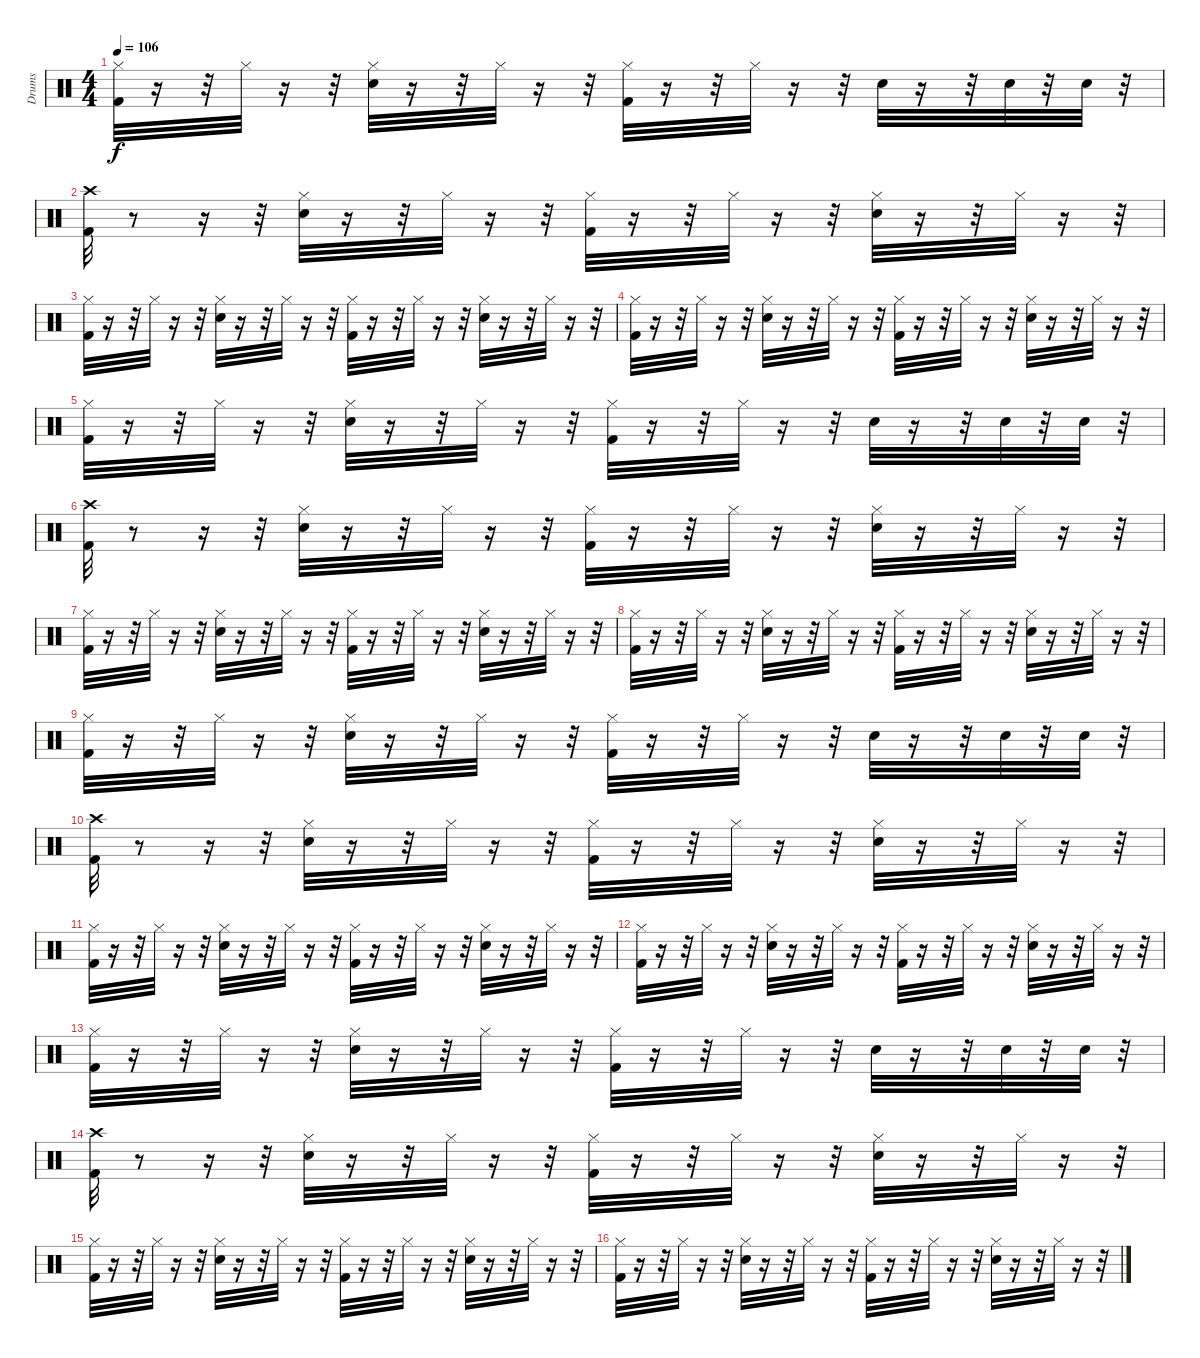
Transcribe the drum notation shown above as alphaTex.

\track ("Drums" "Drums") {instrument percussion}
\staff {score}
\articulation defaults
\ts (4 4)
\tempo 106
\clef neutral
\ks c
("Hi-Hat (closed)" "Kick (hit) 2").32{dy f} r.16 r.32 "Hi-Hat (closed)".32 r.16 r.32 ("Hi-Hat (closed)" "Snare (hit) 2").32 r.16 r.32 "Hi-Hat (closed)".32 r.16 r.32 ("Hi-Hat (closed)" "Kick (hit) 2").32 r.16 r.32 "Hi-Hat (closed)".32 r.16 r.32 "Snare (hit) 2".32 r.16 r.32 "Snare (hit) 2".32 r.32 "Snare (hit) 2".32 r.32 |
("Crash high (hit)" "Kick (hit) 2").32 r.8 r.16 r.32 ("Hi-Hat (closed)" "Snare (hit) 2").32 r.16 r.32 "Hi-Hat (closed)".32 r.16 r.32 ("Hi-Hat (closed)" "Kick (hit) 2").32 r.16 r.32 "Hi-Hat (closed)".32 r.16 r.32 ("Hi-Hat (closed)" "Snare (hit) 2").32 r.16 r.32 "Hi-Hat (closed)".32 r.16 r.32 |
("Hi-Hat (closed)" "Kick (hit) 2").32 r.16 r.32 "Hi-Hat (closed)".32 r.16 r.32 ("Hi-Hat (closed)" "Snare (hit) 2").32 r.16 r.32 "Hi-Hat (closed)".32 r.16 r.32 ("Hi-Hat (closed)" "Kick (hit) 2").32 r.16 r.32 "Hi-Hat (closed)".32 r.16 r.32 ("Hi-Hat (closed)" "Snare (hit) 2").32 r.16 r.32 "Hi-Hat (closed)".32 r.16 r.32 |
("Hi-Hat (closed)" "Kick (hit) 2").32 r.16 r.32 "Hi-Hat (closed)".32 r.16 r.32 ("Hi-Hat (closed)" "Snare (hit) 2").32 r.16 r.32 "Hi-Hat (closed)".32 r.16 r.32 ("Hi-Hat (closed)" "Kick (hit) 2").32 r.16 r.32 "Hi-Hat (closed)".32 r.16 r.32 ("Hi-Hat (closed)" "Snare (hit) 2").32 r.16 r.32 "Hi-Hat (closed)".32 r.16 r.32 |
("Hi-Hat (closed)" "Kick (hit) 2").32 r.16 r.32 "Hi-Hat (closed)".32 r.16 r.32 ("Hi-Hat (closed)" "Snare (hit) 2").32 r.16 r.32 "Hi-Hat (closed)".32 r.16 r.32 ("Hi-Hat (closed)" "Kick (hit) 2").32 r.16 r.32 "Hi-Hat (closed)".32 r.16 r.32 "Snare (hit) 2".32 r.16 r.32 "Snare (hit) 2".32 r.32 "Snare (hit) 2".32 r.32 |
("Crash high (hit)" "Kick (hit) 2").32 r.8 r.16 r.32 ("Hi-Hat (closed)" "Snare (hit) 2").32 r.16 r.32 "Hi-Hat (closed)".32 r.16 r.32 ("Hi-Hat (closed)" "Kick (hit) 2").32 r.16 r.32 "Hi-Hat (closed)".32 r.16 r.32 ("Hi-Hat (closed)" "Snare (hit) 2").32 r.16 r.32 "Hi-Hat (closed)".32 r.16 r.32 |
("Hi-Hat (closed)" "Kick (hit) 2").32 r.16 r.32 "Hi-Hat (closed)".32 r.16 r.32 ("Hi-Hat (closed)" "Snare (hit) 2").32 r.16 r.32 "Hi-Hat (closed)".32 r.16 r.32 ("Hi-Hat (closed)" "Kick (hit) 2").32 r.16 r.32 "Hi-Hat (closed)".32 r.16 r.32 ("Hi-Hat (closed)" "Snare (hit) 2").32 r.16 r.32 "Hi-Hat (closed)".32 r.16 r.32 |
("Hi-Hat (closed)" "Kick (hit) 2").32 r.16 r.32 "Hi-Hat (closed)".32 r.16 r.32 ("Hi-Hat (closed)" "Snare (hit) 2").32 r.16 r.32 "Hi-Hat (closed)".32 r.16 r.32 ("Hi-Hat (closed)" "Kick (hit) 2").32 r.16 r.32 "Hi-Hat (closed)".32 r.16 r.32 ("Hi-Hat (closed)" "Snare (hit) 2").32 r.16 r.32 "Hi-Hat (closed)".32 r.16 r.32 |
("Hi-Hat (closed)" "Kick (hit) 2").32 r.16 r.32 "Hi-Hat (closed)".32 r.16 r.32 ("Hi-Hat (closed)" "Snare (hit) 2").32 r.16 r.32 "Hi-Hat (closed)".32 r.16 r.32 ("Hi-Hat (closed)" "Kick (hit) 2").32 r.16 r.32 "Hi-Hat (closed)".32 r.16 r.32 "Snare (hit) 2".32 r.16 r.32 "Snare (hit) 2".32 r.32 "Snare (hit) 2".32 r.32 |
("Crash high (hit)" "Kick (hit) 2").32 r.8 r.16 r.32 ("Hi-Hat (closed)" "Snare (hit) 2").32 r.16 r.32 "Hi-Hat (closed)".32 r.16 r.32 ("Hi-Hat (closed)" "Kick (hit) 2").32 r.16 r.32 "Hi-Hat (closed)".32 r.16 r.32 ("Hi-Hat (closed)" "Snare (hit) 2").32 r.16 r.32 "Hi-Hat (closed)".32 r.16 r.32 |
("Hi-Hat (closed)" "Kick (hit) 2").32 r.16 r.32 "Hi-Hat (closed)".32 r.16 r.32 ("Hi-Hat (closed)" "Snare (hit) 2").32 r.16 r.32 "Hi-Hat (closed)".32 r.16 r.32 ("Hi-Hat (closed)" "Kick (hit) 2").32 r.16 r.32 "Hi-Hat (closed)".32 r.16 r.32 ("Hi-Hat (closed)" "Snare (hit) 2").32 r.16 r.32 "Hi-Hat (closed)".32 r.16 r.32 |
("Hi-Hat (closed)" "Kick (hit) 2").32 r.16 r.32 "Hi-Hat (closed)".32 r.16 r.32 ("Hi-Hat (closed)" "Snare (hit) 2").32 r.16 r.32 "Hi-Hat (closed)".32 r.16 r.32 ("Hi-Hat (closed)" "Kick (hit) 2").32 r.16 r.32 "Hi-Hat (closed)".32 r.16 r.32 ("Hi-Hat (closed)" "Snare (hit) 2").32 r.16 r.32 "Hi-Hat (closed)".32 r.16 r.32 |
("Hi-Hat (closed)" "Kick (hit) 2").32 r.16 r.32 "Hi-Hat (closed)".32 r.16 r.32 ("Hi-Hat (closed)" "Snare (hit) 2").32 r.16 r.32 "Hi-Hat (closed)".32 r.16 r.32 ("Hi-Hat (closed)" "Kick (hit) 2").32 r.16 r.32 "Hi-Hat (closed)".32 r.16 r.32 "Snare (hit) 2".32 r.16 r.32 "Snare (hit) 2".32 r.32 "Snare (hit) 2".32 r.32 |
("Crash high (hit)" "Kick (hit) 2").32 r.8 r.16 r.32 ("Hi-Hat (closed)" "Snare (hit) 2").32 r.16 r.32 "Hi-Hat (closed)".32 r.16 r.32 ("Hi-Hat (closed)" "Kick (hit) 2").32 r.16 r.32 "Hi-Hat (closed)".32 r.16 r.32 ("Hi-Hat (closed)" "Snare (hit) 2").32 r.16 r.32 "Hi-Hat (closed)".32 r.16 r.32 |
("Hi-Hat (closed)" "Kick (hit) 2").32 r.16 r.32 "Hi-Hat (closed)".32 r.16 r.32 ("Hi-Hat (closed)" "Snare (hit) 2").32 r.16 r.32 "Hi-Hat (closed)".32 r.16 r.32 ("Hi-Hat (closed)" "Kick (hit) 2").32 r.16 r.32 "Hi-Hat (closed)".32 r.16 r.32 ("Hi-Hat (closed)" "Snare (hit) 2").32 r.16 r.32 "Hi-Hat (closed)".32 r.16 r.32 |
("Hi-Hat (closed)" "Kick (hit) 2").32 r.16 r.32 "Hi-Hat (closed)".32 r.16 r.32 ("Hi-Hat (closed)" "Snare (hit) 2").32 r.16 r.32 "Hi-Hat (closed)".32 r.16 r.32 ("Hi-Hat (closed)" "Kick (hit) 2").32 r.16 r.32 "Hi-Hat (closed)".32 r.16 r.32 ("Hi-Hat (closed)" "Snare (hit) 2").32 r.16 r.32 "Hi-Hat (closed)".32 r.16 r.32
